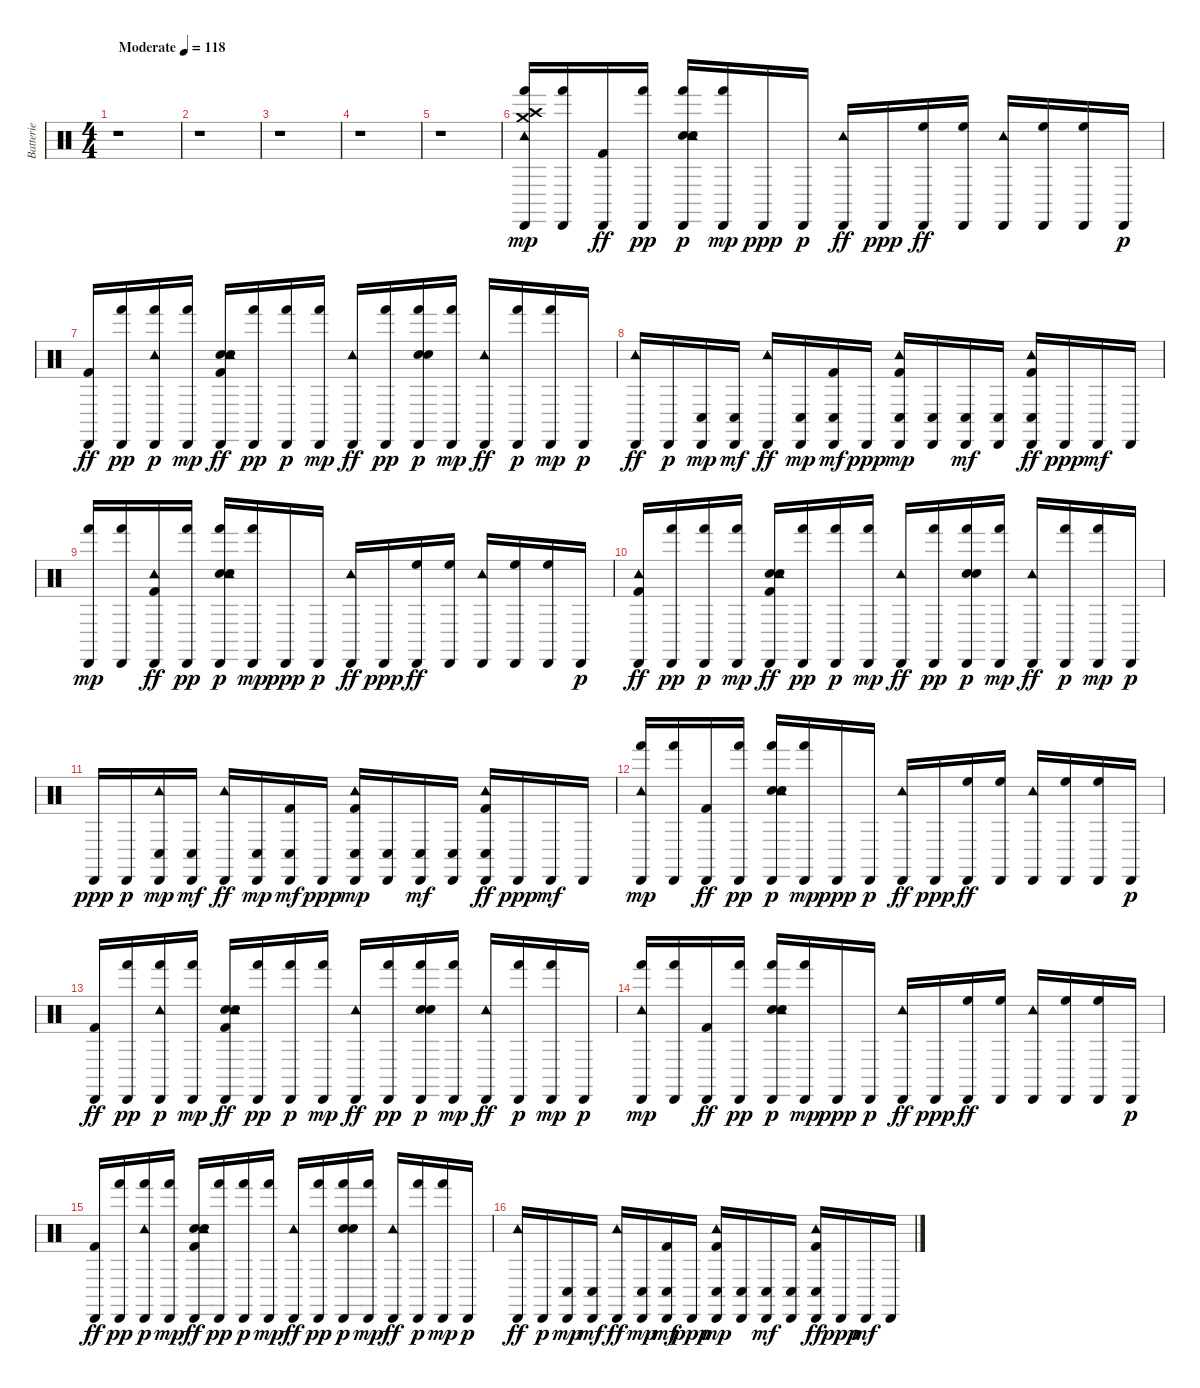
\track ("Batterie" "Batterie") {instrument percussion}
\staff {score}
\articulation defaults
\ts (4 4)
\tempo (118 "Moderate")
\clef neutral
\ks c
r.1{dy mp} |
r.1 |
r.1 |
r.1 |
r.1 |
("Cabasa (hit)" "Crash medium (hit)" "Crash high (hit)" "Tambourine (hit)" "Hand (hit)").16 ("Cabasa (hit)" "Hand (hit)").16 ("Cabasa (hit)" "Kick (hit) 2").16{dy ff} ("Cabasa (hit)" "Hand (hit)").16{dy pp} ("Hand Clap (hit)" "Cabasa (hit)" "Tambourine (hit)" "Snare (hit) 2" "Hand (hit)").16{dy p} ("Cabasa (hit)" "Hand (hit)").16{dy mp} "Cabasa (hit)".16{dy ppp} "Cabasa (hit)".16{dy p} ("Cabasa (hit)" "Tambourine (hit)").16{dy ff} "Cabasa (hit)".16{dy ppp} ("Cabasa (hit)" "High Floor Tom (hit)").16{dy ff} ("Cabasa (hit)" "High Floor Tom (hit)").16 ("Cabasa (hit)" "Tambourine (hit)").16 ("Cabasa (hit)" "High Floor Tom (hit)").16 ("Cabasa (hit)" "High Floor Tom (hit)").16 "Cabasa (hit)".16{dy p} |
("Cabasa (hit)" "Kick (hit) 2").16{dy ff} ("Cabasa (hit)" "Hand (hit)").16{dy pp} ("Cabasa (hit)" "Tambourine (hit)" "Hand (hit)").16{dy p} ("Cabasa (hit)" "Hand (hit)").16{dy mp} ("Hand Clap (hit)" "Cabasa (hit)" "Tambourine (hit)" "Kick (hit) 2" "Snare (hit) 2").16{dy ff} ("Cabasa (hit)" "Hand (hit)").16{dy pp} ("Cabasa (hit)" "Hand (hit)").16{dy p} ("Cabasa (hit)" "Hand (hit)").16{dy mp} ("Cabasa (hit)" "Tambourine (hit)").16{dy ff} ("Cabasa (hit)" "Hand (hit)").16{dy pp} ("Hand Clap (hit)" "Cabasa (hit)" "Snare (hit) 2" "Hand (hit)").16{dy p} ("Cabasa (hit)" "Hand (hit)").16{dy mp} ("Cabasa (hit)" "Tambourine (hit)").16{dy ff} ("Cabasa (hit)" "Hand (hit)").16{dy p} ("Cabasa (hit)" "Hand (hit)").16{dy mp} "Cabasa (hit)".16{dy p} |
("Cabasa (hit)" "Tambourine (hit)").16{dy ff} "Cabasa (hit)".16{dy p} ("Cabasa (hit)" "Conga low (hit)").16{dy mp} ("Cabasa (hit)" "Conga low (hit)").16{dy mf} ("Cabasa (hit)" "Tambourine (hit)").16{dy ff} ("Cabasa (hit)" "Conga low (hit)").16{dy mp} ("Cabasa (hit)" "Kick (hit) 2" "Conga low (hit)").16{dy mf} "Cabasa (hit)".16{dy ppp} ("Cabasa (hit)" "Tambourine (hit)" "Kick (hit) 2" "Conga low (hit)").16{dy mp} ("Cabasa (hit)" "Conga low (hit)").16 ("Cabasa (hit)" "Conga low (hit)").16{dy mf} ("Cabasa (hit)" "Conga low (hit)").16 ("Cabasa (hit)" "Tambourine (hit)" "Kick (hit) 2" "Conga low (hit)").16{dy ff} "Cabasa (hit)".16{dy ppp} "Cabasa (hit)".16{dy mf} "Cabasa (hit)".16 |
("Cabasa (hit)" "Hand (hit)").16{dy mp} ("Cabasa (hit)" "Hand (hit)").16 ("Cabasa (hit)" "Tambourine (hit)" "Kick (hit) 2").16{dy ff} ("Cabasa (hit)" "Hand (hit)").16{dy pp} ("Hand Clap (hit)" "Cabasa (hit)" "Tambourine (hit)" "Snare (hit) 2" "Hand (hit)").16{dy p} ("Cabasa (hit)" "Hand (hit)").16{dy mp} "Cabasa (hit)".16{dy ppp} "Cabasa (hit)".16{dy p} ("Cabasa (hit)" "Tambourine (hit)").16{dy ff} "Cabasa (hit)".16{dy ppp} ("Cabasa (hit)" "High Floor Tom (hit)").16{dy ff} ("Cabasa (hit)" "High Floor Tom (hit)").16 ("Cabasa (hit)" "Tambourine (hit)").16 ("Cabasa (hit)" "High Floor Tom (hit)").16 ("Cabasa (hit)" "High Floor Tom (hit)").16 "Cabasa (hit)".16{dy p} |
("Cabasa (hit)" "Tambourine (hit)" "Kick (hit) 2").16{dy ff} ("Cabasa (hit)" "Hand (hit)").16{dy pp} ("Cabasa (hit)" "Hand (hit)").16{dy p} ("Cabasa (hit)" "Hand (hit)").16{dy mp} ("Hand Clap (hit)" "Cabasa (hit)" "Tambourine (hit)" "Kick (hit) 2" "Snare (hit) 2").16{dy ff} ("Cabasa (hit)" "Hand (hit)").16{dy pp} ("Cabasa (hit)" "Hand (hit)").16{dy p} ("Cabasa (hit)" "Hand (hit)").16{dy mp} ("Cabasa (hit)" "Tambourine (hit)").16{dy ff} ("Cabasa (hit)" "Hand (hit)").16{dy pp} ("Hand Clap (hit)" "Cabasa (hit)" "Snare (hit) 2" "Hand (hit)").16{dy p} ("Cabasa (hit)" "Hand (hit)").16{dy mp} ("Cabasa (hit)" "Tambourine (hit)").16{dy ff} ("Cabasa (hit)" "Hand (hit)").16{dy p} ("Cabasa (hit)" "Hand (hit)").16{dy mp} "Cabasa (hit)".16{dy p} |
"Cabasa (hit)".16{dy ppp} "Cabasa (hit)".16{dy p} ("Cabasa (hit)" "Tambourine (hit)" "Conga low (hit)").16{dy mp} ("Cabasa (hit)" "Conga low (hit)").16{dy mf} ("Cabasa (hit)" "Tambourine (hit)").16{dy ff} ("Cabasa (hit)" "Conga low (hit)").16{dy mp} ("Cabasa (hit)" "Kick (hit) 2" "Conga low (hit)").16{dy mf} "Cabasa (hit)".16{dy ppp} ("Cabasa (hit)" "Tambourine (hit)" "Kick (hit) 2" "Conga low (hit)").16{dy mp} ("Cabasa (hit)" "Conga low (hit)").16 ("Cabasa (hit)" "Conga low (hit)").16{dy mf} ("Cabasa (hit)" "Conga low (hit)").16 ("Cabasa (hit)" "Tambourine (hit)" "Kick (hit) 2" "Conga low (hit)").16{dy ff} "Cabasa (hit)".16{dy ppp} "Cabasa (hit)".16{dy mf} "Cabasa (hit)".16 |
("Cabasa (hit)" "Tambourine (hit)" "Hand (hit)").16{dy mp} ("Cabasa (hit)" "Hand (hit)").16 ("Cabasa (hit)" "Kick (hit) 2").16{dy ff} ("Cabasa (hit)" "Hand (hit)").16{dy pp} ("Hand Clap (hit)" "Cabasa (hit)" "Tambourine (hit)" "Snare (hit) 2" "Hand (hit)").16{dy p} ("Cabasa (hit)" "Hand (hit)").16{dy mp} "Cabasa (hit)".16{dy ppp} "Cabasa (hit)".16{dy p} ("Cabasa (hit)" "Tambourine (hit)").16{dy ff} "Cabasa (hit)".16{dy ppp} ("Cabasa (hit)" "High Floor Tom (hit)").16{dy ff} ("Cabasa (hit)" "High Floor Tom (hit)").16 ("Cabasa (hit)" "Tambourine (hit)").16 ("Cabasa (hit)" "High Floor Tom (hit)").16 ("Cabasa (hit)" "High Floor Tom (hit)").16 "Cabasa (hit)".16{dy p} |
("Cabasa (hit)" "Kick (hit) 2").16{dy ff} ("Cabasa (hit)" "Hand (hit)").16{dy pp} ("Cabasa (hit)" "Tambourine (hit)" "Hand (hit)").16{dy p} ("Cabasa (hit)" "Hand (hit)").16{dy mp} ("Hand Clap (hit)" "Cabasa (hit)" "Tambourine (hit)" "Kick (hit) 2" "Snare (hit) 2").16{dy ff} ("Cabasa (hit)" "Hand (hit)").16{dy pp} ("Cabasa (hit)" "Hand (hit)").16{dy p} ("Cabasa (hit)" "Hand (hit)").16{dy mp} ("Cabasa (hit)" "Tambourine (hit)").16{dy ff} ("Cabasa (hit)" "Hand (hit)").16{dy pp} ("Hand Clap (hit)" "Cabasa (hit)" "Snare (hit) 2" "Hand (hit)").16{dy p} ("Cabasa (hit)" "Hand (hit)").16{dy mp} ("Cabasa (hit)" "Tambourine (hit)").16{dy ff} ("Cabasa (hit)" "Hand (hit)").16{dy p} ("Cabasa (hit)" "Hand (hit)").16{dy mp} "Cabasa (hit)".16{dy p} |
("Cabasa (hit)" "Tambourine (hit)" "Hand (hit)").16{dy mp} ("Cabasa (hit)" "Hand (hit)").16 ("Cabasa (hit)" "Kick (hit) 2").16{dy ff} ("Cabasa (hit)" "Hand (hit)").16{dy pp} ("Hand Clap (hit)" "Cabasa (hit)" "Tambourine (hit)" "Snare (hit) 2" "Hand (hit)").16{dy p} ("Cabasa (hit)" "Hand (hit)").16{dy mp} "Cabasa (hit)".16{dy ppp} "Cabasa (hit)".16{dy p} ("Cabasa (hit)" "Tambourine (hit)").16{dy ff} "Cabasa (hit)".16{dy ppp} ("Cabasa (hit)" "High Floor Tom (hit)").16{dy ff} ("Cabasa (hit)" "High Floor Tom (hit)").16 ("Cabasa (hit)" "Tambourine (hit)").16 ("Cabasa (hit)" "High Floor Tom (hit)").16 ("Cabasa (hit)" "High Floor Tom (hit)").16 "Cabasa (hit)".16{dy p} |
("Cabasa (hit)" "Kick (hit) 2").16{dy ff} ("Cabasa (hit)" "Hand (hit)").16{dy pp} ("Cabasa (hit)" "Tambourine (hit)" "Hand (hit)").16{dy p} ("Cabasa (hit)" "Hand (hit)").16{dy mp} ("Hand Clap (hit)" "Cabasa (hit)" "Tambourine (hit)" "Kick (hit) 2" "Snare (hit) 2").16{dy ff} ("Cabasa (hit)" "Hand (hit)").16{dy pp} ("Cabasa (hit)" "Hand (hit)").16{dy p} ("Cabasa (hit)" "Hand (hit)").16{dy mp} ("Cabasa (hit)" "Tambourine (hit)").16{dy ff} ("Cabasa (hit)" "Hand (hit)").16{dy pp} ("Hand Clap (hit)" "Cabasa (hit)" "Snare (hit) 2" "Hand (hit)").16{dy p} ("Cabasa (hit)" "Hand (hit)").16{dy mp} ("Cabasa (hit)" "Tambourine (hit)").16{dy ff} ("Cabasa (hit)" "Hand (hit)").16{dy p} ("Cabasa (hit)" "Hand (hit)").16{dy mp} "Cabasa (hit)".16{dy p} |
("Cabasa (hit)" "Tambourine (hit)").16{dy ff} "Cabasa (hit)".16{dy p} ("Cabasa (hit)" "Conga low (hit)").16{dy mp} ("Cabasa (hit)" "Conga low (hit)").16{dy mf} ("Cabasa (hit)" "Tambourine (hit)").16{dy ff} ("Cabasa (hit)" "Conga low (hit)").16{dy mp} ("Cabasa (hit)" "Kick (hit) 2" "Conga low (hit)").16{dy mf} "Cabasa (hit)".16{dy ppp} ("Cabasa (hit)" "Tambourine (hit)" "Kick (hit) 2" "Conga low (hit)").16{dy mp} ("Cabasa (hit)" "Conga low (hit)").16 ("Cabasa (hit)" "Conga low (hit)").16{dy mf} ("Cabasa (hit)" "Conga low (hit)").16 ("Cabasa (hit)" "Tambourine (hit)" "Kick (hit) 2" "Conga low (hit)").16{dy ff} "Cabasa (hit)".16{dy ppp} "Cabasa (hit)".16{dy mf} "Cabasa (hit)".16
